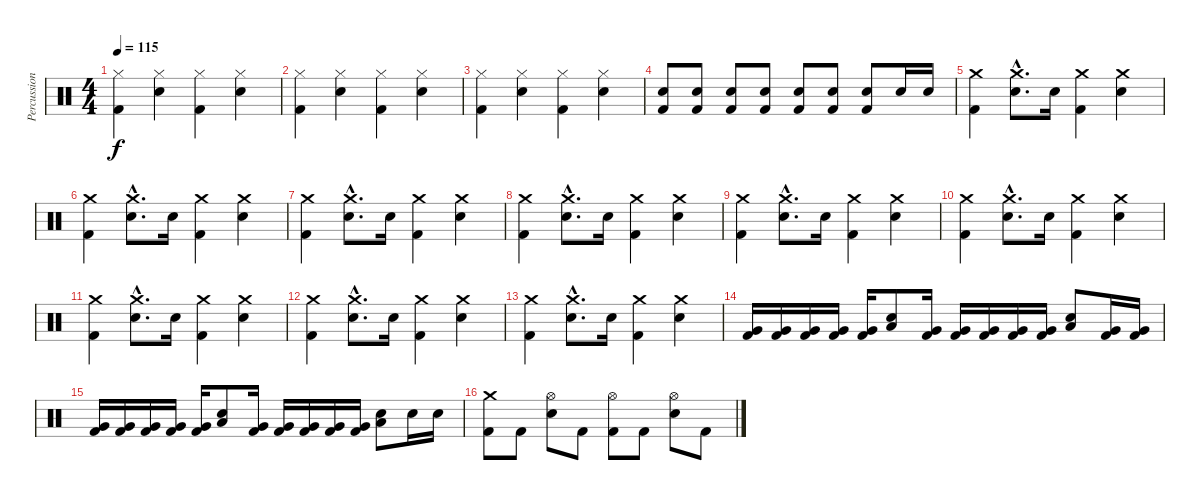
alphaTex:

\track ("Percussions" "Percussion") {instrument percussion}
\staff {score}
\articulation defaults
\ts (4 4)
\tempo 115
\clef neutral
\ks c
("Hi-Hat (closed)" "Kick (hit) 2").4{dy f} ("Hi-Hat (closed)" "Electric Snare (hit)").4 ("Hi-Hat (closed)" "Kick (hit) 2").4 ("Hi-Hat (closed)" "Electric Snare (hit)").4 |
("Hi-Hat (closed)" "Kick (hit) 2").4 ("Hi-Hat (closed)" "Electric Snare (hit)").4 ("Hi-Hat (closed)" "Kick (hit) 2").4 ("Hi-Hat (closed)" "Electric Snare (hit)").4 |
("Hi-Hat (closed)" "Kick (hit) 2").4 ("Hi-Hat (closed)" "Electric Snare (hit)").4 ("Hi-Hat (closed)" "Kick (hit) 2").4 ("Hi-Hat (closed)" "Electric Snare (hit)").4 |
("Electric Snare (hit)" "Kick (hit) 2").8 ("Electric Snare (hit)" "Kick (hit) 2").8 ("Electric Snare (hit)" "Kick (hit) 2").8 ("Electric Snare (hit)" "Kick (hit) 2").8 ("Electric Snare (hit)" "Kick (hit) 2").8 ("Electric Snare (hit)" "Kick (hit) 2").8 ("Electric Snare (hit)" "Kick (hit) 2").8 "Electric Snare (hit)".16 "Electric Snare (hit)".16 |
("Crash medium (hit)" "Kick (hit) 2").4 ("Crash medium (hit)"{hac} "Electric Snare (hit)"{hac}).8{d} "Electric Snare (hit)".16 ("Crash medium (hit)" "Kick (hit) 2").4 ("Crash medium (hit)" "Electric Snare (hit)").4 |
("Crash medium (hit)" "Kick (hit) 2").4 ("Crash medium (hit)"{hac} "Electric Snare (hit)"{hac}).8{d} "Electric Snare (hit)".16 ("Crash medium (hit)" "Kick (hit) 2").4 ("Crash medium (hit)" "Electric Snare (hit)").4 |
("Crash medium (hit)" "Kick (hit) 2").4 ("Crash medium (hit)"{hac} "Electric Snare (hit)"{hac}).8{d} "Electric Snare (hit)".16 ("Crash medium (hit)" "Kick (hit) 2").4 ("Crash medium (hit)" "Electric Snare (hit)").4 |
("Crash medium (hit)" "Kick (hit) 2").4 ("Crash medium (hit)"{hac} "Electric Snare (hit)"{hac}).8{d} "Electric Snare (hit)".16 ("Crash medium (hit)" "Kick (hit) 2").4 ("Crash medium (hit)" "Electric Snare (hit)").4 |
("Crash medium (hit)" "Kick (hit) 2").4 ("Crash medium (hit)"{hac} "Electric Snare (hit)"{hac}).8{d} "Electric Snare (hit)".16 ("Crash medium (hit)" "Kick (hit) 2").4 ("Crash medium (hit)" "Electric Snare (hit)").4 |
("Crash medium (hit)" "Kick (hit) 2").4 ("Crash medium (hit)"{hac} "Electric Snare (hit)"{hac}).8{d} "Electric Snare (hit)".16 ("Crash medium (hit)" "Kick (hit) 2").4 ("Crash medium (hit)" "Electric Snare (hit)").4 |
("Crash medium (hit)" "Kick (hit) 2").4 ("Crash medium (hit)"{hac} "Electric Snare (hit)"{hac}).8{d} "Electric Snare (hit)".16 ("Crash medium (hit)" "Kick (hit) 2").4 ("Crash medium (hit)" "Electric Snare (hit)").4 |
("Crash medium (hit)" "Kick (hit) 2").4 ("Crash medium (hit)"{hac} "Electric Snare (hit)"{hac}).8{d} "Electric Snare (hit)".16 ("Crash medium (hit)" "Kick (hit) 2").4 ("Crash medium (hit)" "Electric Snare (hit)").4 |
("Crash medium (hit)" "Kick (hit) 2").4 ("Crash medium (hit)"{hac} "Electric Snare (hit)"{hac}).8{d} "Electric Snare (hit)".16 ("Crash medium (hit)" "Kick (hit) 2").4 ("Crash medium (hit)" "Electric Snare (hit)").4 |
("Very Low Tom (hit)" "Kick (hit) 2").16 ("Very Low Tom (hit)" "Kick (hit) 2").16 ("Very Low Tom (hit)" "Kick (hit) 2").16 ("Very Low Tom (hit)" "Kick (hit) 2").16 ("Very Low Tom (hit)" "Kick (hit) 2").16 ("Low Floor Tom (hit)" "Electric Snare (hit)").8 ("Very Low Tom (hit)" "Kick (hit) 2").16 ("Very Low Tom (hit)" "Kick (hit) 2").16 ("Very Low Tom (hit)" "Kick (hit) 2").16 ("Very Low Tom (hit)" "Kick (hit) 2").16 ("Very Low Tom (hit)" "Kick (hit) 2").16 ("Low Floor Tom (hit)" "Electric Snare (hit)").8 ("Very Low Tom (hit)" "Kick (hit) 2").16 ("Very Low Tom (hit)" "Kick (hit) 2").16 |
("Very Low Tom (hit)" "Kick (hit) 2").16 ("Very Low Tom (hit)" "Kick (hit) 2").16 ("Very Low Tom (hit)" "Kick (hit) 2").16 ("Very Low Tom (hit)" "Kick (hit) 2").16 ("Very Low Tom (hit)" "Kick (hit) 2").16 ("Low Floor Tom (hit)" "Electric Snare (hit)").8 ("Very Low Tom (hit)" "Kick (hit) 2").16 ("Very Low Tom (hit)" "Kick (hit) 2").16 ("Very Low Tom (hit)" "Kick (hit) 2").16 ("Very Low Tom (hit)" "Kick (hit) 2").16 ("Very Low Tom (hit)" "Kick (hit) 2").16 ("Low Floor Tom (hit)" "Electric Snare (hit)").8 "Electric Snare (hit)".16 "Electric Snare (hit)".16 |
("Crash medium (hit)" "Kick (hit) 2").8 "Kick (hit) 2".8 ("Hi-Hat (open)" "Electric Snare (hit)").8 "Kick (hit) 2".8 ("Hi-Hat (open)" "Kick (hit) 2").8 "Kick (hit) 2".8 ("Hi-Hat (open)" "Electric Snare (hit)").8 "Kick (hit) 2".8
